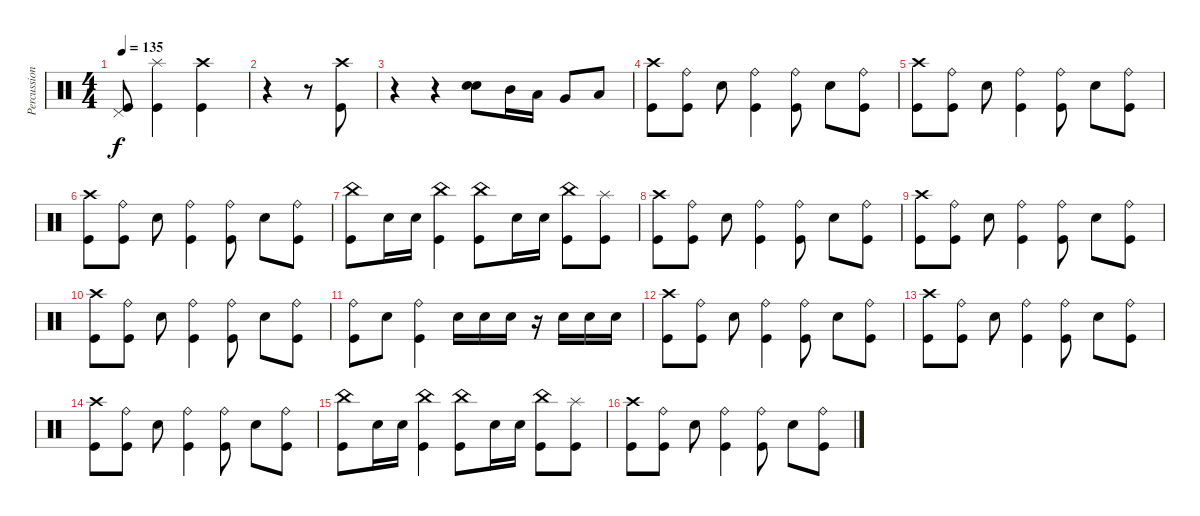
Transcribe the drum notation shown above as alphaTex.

\track ("Percussion" "Percussion") {instrument percussion}
\staff {score}
\articulation defaults
\ts (4 4)
\tempo 135
\clef neutral
\ks c
("Pedal Hi-Hat (hit)" "Kick (hit)").8{dy f} ("Splash (hit)" "Kick (hit)").4 ("Kick (hit)" "Crash high (hit)").4 |
r.4 r.8 ("Crash high (hit)" "Kick (hit)").8 |
r.4 r.4 ("Electric Snare (hit)" "Electric Snare (hit)").8 "Mid Tom (hit)".16 "Low Tom (hit)".16 "Very Low Tom (hit)".8 "Low Floor Tom (hit)".8 |
("Crash high (hit)" "Kick (hit)").8 ("Ride (bell)" "Kick (hit)").8 "Electric Snare (hit)".8 ("Ride (bell)" "Kick (hit)").4 ("Ride (bell)" "Kick (hit)").8 "Electric Snare (hit)".8 ("Ride (bell)" "Kick (hit)").8 |
("Crash high (hit)" "Kick (hit)").8 ("Ride (bell)" "Kick (hit)").8 "Electric Snare (hit)".8 ("Ride (bell)" "Kick (hit)").4 ("Ride (bell)" "Kick (hit)").8 "Electric Snare (hit)".8 ("Ride (bell)" "Kick (hit)").8 |
("Crash high (hit)" "Kick (hit)").8 ("Ride (bell)" "Kick (hit)").8 "Electric Snare (hit)".8 ("Ride (bell)" "Kick (hit)").4 ("Ride (bell)" "Kick (hit)").8 "Electric Snare (hit)".8 ("Ride (bell)" "Kick (hit)").8 |
("China (hit)" "Kick (hit)").8 "Electric Snare (hit)".16 "Electric Snare (hit)".16 ("China (hit)" "Kick (hit)").4 ("China (hit)" "Kick (hit)").8 "Electric Snare (hit)".16 "Electric Snare (hit)".16 ("China (hit)" "Kick (hit)").8 ("Splash (hit)" "Kick (hit)").8 |
("Crash high (hit)" "Kick (hit)").8 ("Ride (bell)" "Kick (hit)").8 "Electric Snare (hit)".8 ("Ride (bell)" "Kick (hit)").4 ("Ride (bell)" "Kick (hit)").8 "Electric Snare (hit)".8 ("Ride (bell)" "Kick (hit)").8 |
("Crash high (hit)" "Kick (hit)").8 ("Ride (bell)" "Kick (hit)").8 "Electric Snare (hit)".8 ("Ride (bell)" "Kick (hit)").4 ("Ride (bell)" "Kick (hit)").8 "Electric Snare (hit)".8 ("Ride (bell)" "Kick (hit)").8 |
("Crash high (hit)" "Kick (hit)").8 ("Ride (bell)" "Kick (hit)").8 "Electric Snare (hit)".8 ("Ride (bell)" "Kick (hit)").4 ("Ride (bell)" "Kick (hit)").8 "Electric Snare (hit)".8 ("Ride (bell)" "Kick (hit)").8 |
("Ride (bell)" "Kick (hit)").8 "Electric Snare (hit)".8 ("Ride (bell)" "Kick (hit)").4 "Electric Snare (hit)".16 "Electric Snare (hit)".16 "Electric Snare (hit)".16 r.16 "Electric Snare (hit)".16 "Electric Snare (hit)".16 "Electric Snare (hit)".16 |
("Crash high (hit)" "Kick (hit)").8 ("Ride (bell)" "Kick (hit)").8 "Electric Snare (hit)".8 ("Ride (bell)" "Kick (hit)").4 ("Ride (bell)" "Kick (hit)").8 "Electric Snare (hit)".8 ("Ride (bell)" "Kick (hit)").8 |
("Crash high (hit)" "Kick (hit)").8 ("Ride (bell)" "Kick (hit)").8 "Electric Snare (hit)".8 ("Ride (bell)" "Kick (hit)").4 ("Ride (bell)" "Kick (hit)").8 "Electric Snare (hit)".8 ("Ride (bell)" "Kick (hit)").8 |
("Crash high (hit)" "Kick (hit)").8 ("Ride (bell)" "Kick (hit)").8 "Electric Snare (hit)".8 ("Ride (bell)" "Kick (hit)").4 ("Ride (bell)" "Kick (hit)").8 "Electric Snare (hit)".8 ("Ride (bell)" "Kick (hit)").8 |
("China (hit)" "Kick (hit)").8 "Electric Snare (hit)".16 "Electric Snare (hit)".16 ("China (hit)" "Kick (hit)").4 ("China (hit)" "Kick (hit)").8 "Electric Snare (hit)".16 "Electric Snare (hit)".16 ("China (hit)" "Kick (hit)").8 ("Splash (hit)" "Kick (hit)").8 |
("Crash high (hit)" "Kick (hit)").8 ("Ride (bell)" "Kick (hit)").8 "Electric Snare (hit)".8 ("Ride (bell)" "Kick (hit)").4 ("Ride (bell)" "Kick (hit)").8 "Electric Snare (hit)".8 ("Ride (bell)" "Kick (hit)").8
